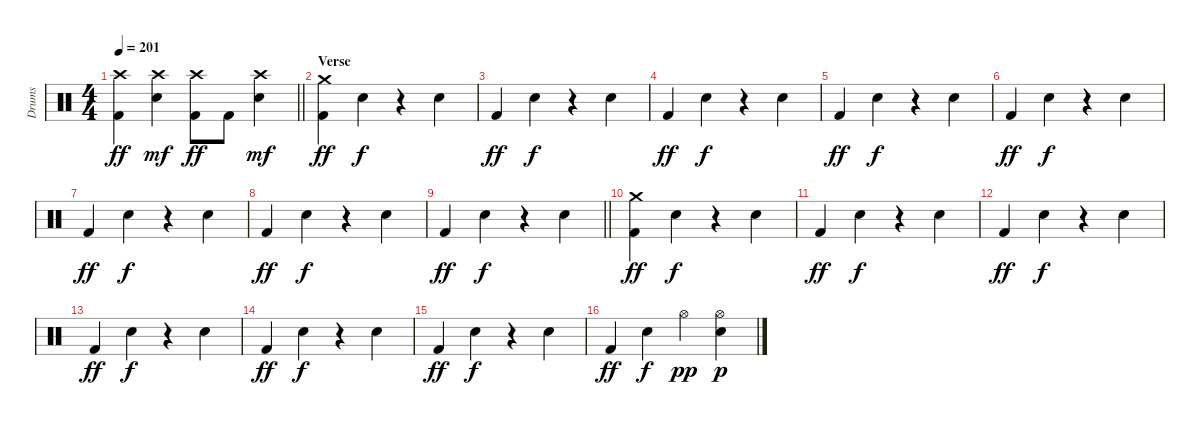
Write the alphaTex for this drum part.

\track ("Drums" "Drums") {instrument percussion}
\staff {score}
\articulation defaults
\ts (4 4)
\tempo 201
\clef neutral
\barLineRight lightlight
\ks c
("Crash high (hit)" "Kick (hit) 2").4{dy ff} ("Crash high (hit)" "Snare (hit) 2").4{dy mf} ("Crash high (hit)" "Kick (hit) 2").8{dy ff} "Kick (hit) 2".8 ("Crash high (hit)" "Snare (hit) 2").4{dy mf} |
\section ("" "Verse")
("Crash medium (hit)" "Kick (hit) 2").4{dy ff} "Snare (hit) 2".4{dy f} r.4 "Snare (hit) 2".4 |
"Kick (hit) 2".4{dy ff} "Snare (hit) 2".4{dy f} r.4 "Snare (hit) 2".4 |
"Kick (hit) 2".4{dy ff} "Snare (hit) 2".4{dy f} r.4 "Snare (hit) 2".4 |
"Kick (hit) 2".4{dy ff} "Snare (hit) 2".4{dy f} r.4 "Snare (hit) 2".4 |
"Kick (hit) 2".4{dy ff} "Snare (hit) 2".4{dy f} r.4 "Snare (hit) 2".4 |
"Kick (hit) 2".4{dy ff} "Snare (hit) 2".4{dy f} r.4 "Snare (hit) 2".4 |
"Kick (hit) 2".4{dy ff} "Snare (hit) 2".4{dy f} r.4 "Snare (hit) 2".4 |
\barLineRight lightlight "Kick (hit) 2".4{dy ff} "Snare (hit) 2".4{dy f}
r.4 "Snare (hit) 2".4 |
("Crash medium (hit)" "Kick (hit) 2").4{dy ff} "Snare (hit) 2".4{dy f} r.4 "Snare (hit) 2".4 |
"Kick (hit) 2".4{dy ff} "Snare (hit) 2".4{dy f} r.4 "Snare (hit) 2".4 |
"Kick (hit) 2".4{dy ff} "Snare (hit) 2".4{dy f} r.4 "Snare (hit) 2".4 |
"Kick (hit) 2".4{dy ff} "Snare (hit) 2".4{dy f} r.4 "Snare (hit) 2".4 |
"Kick (hit) 2".4{dy ff} "Snare (hit) 2".4{dy f} r.4 "Snare (hit) 2".4 |
"Kick (hit) 2".4{dy ff} "Snare (hit) 2".4{dy f} r.4 "Snare (hit) 2".4 |
"Kick (hit) 2".4{dy ff} "Snare (hit) 2".4{dy f} "Hi-Hat (open)".4{dy pp} ("Hi-Hat (open)" "Snare (hit) 2").4{dy p}
